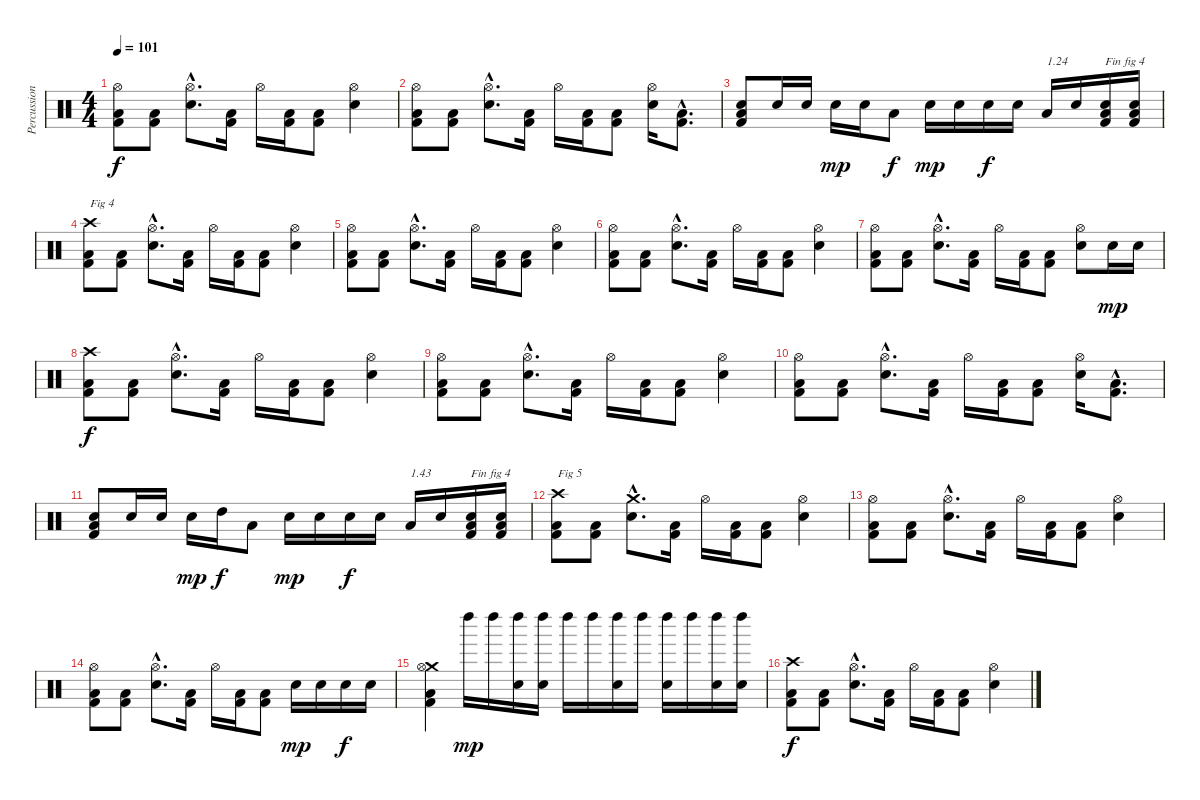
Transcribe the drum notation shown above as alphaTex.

\track ("Percussion" "Percussion") {instrument percussion}
\staff {score}
\articulation defaults
\ts (4 4)
\tempo 101
\clef neutral
\ks c
("Kick (hit) 2" "Low Floor Tom (hit)" "Hi-Hat (open)").8{dy f} ("Kick (hit) 2" "Low Floor Tom (hit)").8 ("Snare (hit) 2"{hac} "Hi-Hat (open)"{hac}).8{d} ("Kick (hit) 2" "Low Floor Tom (hit)").16 "Hi-Hat (open)".16 ("Kick (hit) 2" "Low Floor Tom (hit)").16 ("Kick (hit) 2" "Low Floor Tom (hit)").8 ("Snare (hit) 2" "Hi-Hat (open)").4 |
("Kick (hit) 2" "Low Floor Tom (hit)" "Hi-Hat (open)").8 ("Kick (hit) 2" "Low Floor Tom (hit)").8 ("Snare (hit) 2"{hac} "Hi-Hat (open)"{hac}).8{d} ("Kick (hit) 2" "Low Floor Tom (hit)").16 "Hi-Hat (open)".16 ("Kick (hit) 2" "Low Floor Tom (hit)").16 ("Kick (hit) 2" "Low Floor Tom (hit)").8 ("Snare (hit) 2" "Hi-Hat (open)").16 ("Kick (hit) 2"{hac} "Low Floor Tom (hit)"{hac}).8{d} |
("Kick (hit) 2" "Low Floor Tom (hit)" "Snare (hit) 2").8 "Snare (hit) 2".16 "Snare (hit) 2".16 "Snare (hit) 2".16{dy mp} "Snare (hit) 2".16 "Low Tom (hit)".8{dy f} "Snare (hit) 2".16{dy mp} "Snare (hit) 2".16 "Snare (hit) 2".16{dy f} "Snare (hit) 2".16 "Low Tom (hit)".16{txt "1.24"} "Snare (hit) 2".16 ("Kick (hit) 2" "Low Floor Tom (hit)" "Snare (hit) 2").16{txt "Fin fig 4"} ("Kick (hit) 2" "Low Floor Tom (hit)" "Snare (hit) 2").16 |
("Kick (hit) 2" "Low Floor Tom (hit)" "Crash high (hit)").8{txt "Fig 4"} ("Kick (hit) 2" "Low Floor Tom (hit)").8 ("Snare (hit) 2"{hac} "Hi-Hat (open)"{hac}).8{d} ("Kick (hit) 2" "Low Floor Tom (hit)").16 "Hi-Hat (open)".16 ("Kick (hit) 2" "Low Floor Tom (hit)").16 ("Kick (hit) 2" "Low Floor Tom (hit)").8 ("Snare (hit) 2" "Hi-Hat (open)").4 |
("Kick (hit) 2" "Low Floor Tom (hit)" "Hi-Hat (open)").8 ("Kick (hit) 2" "Low Floor Tom (hit)").8 ("Snare (hit) 2"{hac} "Hi-Hat (open)"{hac}).8{d} ("Kick (hit) 2" "Low Floor Tom (hit)").16 "Hi-Hat (open)".16 ("Kick (hit) 2" "Low Floor Tom (hit)").16 ("Kick (hit) 2" "Low Floor Tom (hit)").8 ("Snare (hit) 2" "Hi-Hat (open)").4 |
("Kick (hit) 2" "Low Floor Tom (hit)" "Hi-Hat (open)").8 ("Kick (hit) 2" "Low Floor Tom (hit)").8 ("Snare (hit) 2"{hac} "Hi-Hat (open)"{hac}).8{d} ("Kick (hit) 2" "Low Floor Tom (hit)").16 "Hi-Hat (open)".16 ("Kick (hit) 2" "Low Floor Tom (hit)").16 ("Kick (hit) 2" "Low Floor Tom (hit)").8 ("Snare (hit) 2" "Hi-Hat (open)").4 |
("Kick (hit) 2" "Low Floor Tom (hit)" "Hi-Hat (open)").8 ("Kick (hit) 2" "Low Floor Tom (hit)").8 ("Snare (hit) 2"{hac} "Hi-Hat (open)"{hac}).8{d} ("Kick (hit) 2" "Low Floor Tom (hit)").16 "Hi-Hat (open)".16 ("Kick (hit) 2" "Low Floor Tom (hit)").16 ("Kick (hit) 2" "Low Floor Tom (hit)").8 ("Snare (hit) 2" "Hi-Hat (open)").8 "Snare (hit) 2".16{dy mp} "Snare (hit) 2".16 |
("Kick (hit) 2" "Low Floor Tom (hit)" "Crash high (hit)").8{dy f} ("Kick (hit) 2" "Low Floor Tom (hit)").8 ("Snare (hit) 2"{hac} "Hi-Hat (open)"{hac}).8{d} ("Kick (hit) 2" "Low Floor Tom (hit)").16 "Hi-Hat (open)".16 ("Kick (hit) 2" "Low Floor Tom (hit)").16 ("Kick (hit) 2" "Low Floor Tom (hit)").8 ("Snare (hit) 2" "Hi-Hat (open)").4 |
("Kick (hit) 2" "Low Floor Tom (hit)" "Hi-Hat (open)").8 ("Kick (hit) 2" "Low Floor Tom (hit)").8 ("Snare (hit) 2"{hac} "Hi-Hat (open)"{hac}).8{d} ("Kick (hit) 2" "Low Floor Tom (hit)").16 "Hi-Hat (open)".16 ("Kick (hit) 2" "Low Floor Tom (hit)").16 ("Kick (hit) 2" "Low Floor Tom (hit)").8 ("Snare (hit) 2" "Hi-Hat (open)").4 |
("Kick (hit) 2" "Low Floor Tom (hit)" "Hi-Hat (open)").8 ("Kick (hit) 2" "Low Floor Tom (hit)").8 ("Snare (hit) 2"{hac} "Hi-Hat (open)"{hac}).8{d} ("Kick (hit) 2" "Low Floor Tom (hit)").16 "Hi-Hat (open)".16 ("Kick (hit) 2" "Low Floor Tom (hit)").16 ("Kick (hit) 2" "Low Floor Tom (hit)").8 ("Snare (hit) 2" "Hi-Hat (open)").16 ("Kick (hit) 2"{hac} "Low Floor Tom (hit)"{hac}).8{d} |
("Kick (hit) 2" "Low Floor Tom (hit)" "Snare (hit) 2").8 "Snare (hit) 2".16 "Snare (hit) 2".16 "Snare (hit) 2".16{dy mp} "High Tom (hit)".16{dy f} "Low Tom (hit)".8 "Snare (hit) 2".16{dy mp} "Snare (hit) 2".16 "Snare (hit) 2".16{dy f} "Snare (hit) 2".16 "Low Tom (hit)".16{txt "1.43"} "Snare (hit) 2".16 ("Kick (hit) 2" "Low Floor Tom (hit)" "Snare (hit) 2").16{txt "Fin fig 4"} ("Kick (hit) 2" "Low Floor Tom (hit)" "Snare (hit) 2").16 |
("Kick (hit) 2" "Low Floor Tom (hit)" "Crash high (hit)").8{txt "Fig 5"} ("Kick (hit) 2" "Low Floor Tom (hit)").8 ("Snare (hit) 2"{hac} "Crash medium (hit)"{hac}).8{d} ("Kick (hit) 2" "Low Floor Tom (hit)").16 "Hi-Hat (open)".16 ("Kick (hit) 2" "Low Floor Tom (hit)").16 ("Kick (hit) 2" "Low Floor Tom (hit)").8 ("Snare (hit) 2" "Hi-Hat (open)").4 |
("Kick (hit) 2" "Low Floor Tom (hit)" "Hi-Hat (open)").8 ("Kick (hit) 2" "Low Floor Tom (hit)").8 ("Snare (hit) 2"{hac} "Hi-Hat (open)"{hac}).8{d} ("Kick (hit) 2" "Low Floor Tom (hit)").16 "Hi-Hat (open)".16 ("Kick (hit) 2" "Low Floor Tom (hit)").16 ("Kick (hit) 2" "Low Floor Tom (hit)").8 ("Snare (hit) 2" "Hi-Hat (open)").4 |
("Kick (hit) 2" "Low Floor Tom (hit)" "Hi-Hat (open)").8 ("Kick (hit) 2" "Low Floor Tom (hit)").8 ("Snare (hit) 2"{hac} "Hi-Hat (open)"{hac}).8{d} ("Kick (hit) 2" "Low Floor Tom (hit)").16 "Hi-Hat (open)".16 ("Kick (hit) 2" "Low Floor Tom (hit)").16 ("Kick (hit) 2" "Low Floor Tom (hit)").8 "Snare (hit) 2".16{dy mp} "Snare (hit) 2".16 "Snare (hit) 2".16{dy f} "Snare (hit) 2".16 |
("Kick (hit) 2" "Low Floor Tom (hit)" "Crash medium (hit)" "Hi-Hat (open)").4 "Left Maraca (hit)".16{dy mp} "Left Maraca (hit)".16 ("Snare (hit) 2" "Left Maraca (hit)").16 ("Snare (hit) 2" "Left Maraca (hit)").16 "Left Maraca (hit)".16 "Left Maraca (hit)".16 ("Snare (hit) 2" "Left Maraca (hit)").16 "Left Maraca (hit)".16 ("Snare (hit) 2" "Left Maraca (hit)").16 "Left Maraca (hit)".16 ("Snare (hit) 2" "Left Maraca (hit)").16 ("Snare (hit) 2" "Left Maraca (hit)").16 |
("Kick (hit) 2" "Low Floor Tom (hit)" "Crash high (hit)").8{dy f} ("Kick (hit) 2" "Low Floor Tom (hit)").8 ("Snare (hit) 2"{hac} "Hi-Hat (open)"{hac}).8{d} ("Kick (hit) 2" "Low Floor Tom (hit)").16 "Hi-Hat (open)".16 ("Kick (hit) 2" "Low Floor Tom (hit)").16 ("Kick (hit) 2" "Low Floor Tom (hit)").8 ("Snare (hit) 2" "Hi-Hat (open)").4
